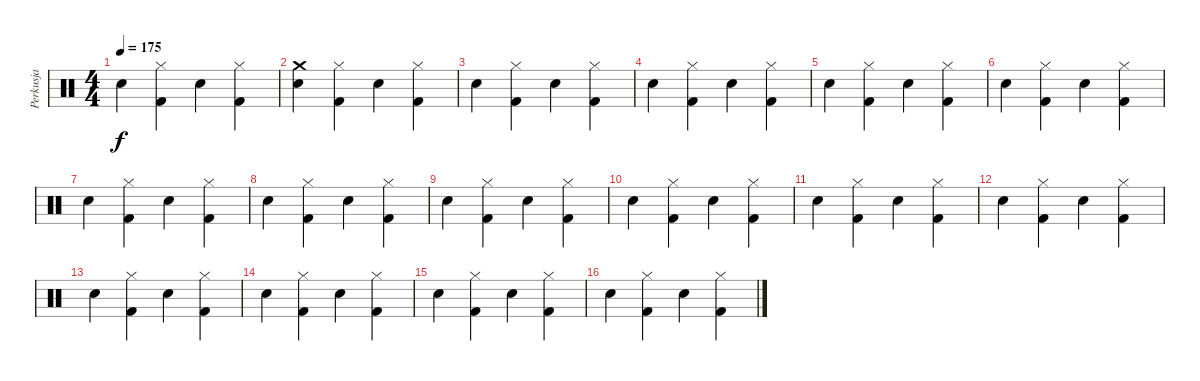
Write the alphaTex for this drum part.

\track ("Perkusja" "Perkusja") {instrument percussion}
\staff {score}
\articulation defaults
\ts (4 4)
\tempo 175
\clef neutral
\ks c "Snare (hit) 2".4{dy f}
("Kick (hit) 2" "Hi-Hat (closed)").4 "Snare (hit) 2".4 ("Kick (hit) 2" "Hi-Hat (closed)").4 |
("Snare (hit) 2" "Crash medium (hit)").4 ("Kick (hit) 2" "Hi-Hat (closed)").4 "Snare (hit) 2".4 ("Kick (hit) 2" "Hi-Hat (closed)").4 |
"Snare (hit) 2".4 ("Kick (hit) 2" "Hi-Hat (closed)").4 "Snare (hit) 2".4 ("Kick (hit) 2" "Hi-Hat (closed)").4 |
"Snare (hit) 2".4 ("Kick (hit) 2" "Hi-Hat (closed)").4 "Snare (hit) 2".4 ("Kick (hit) 2" "Hi-Hat (closed)").4 |
"Snare (hit) 2".4 ("Kick (hit) 2" "Hi-Hat (closed)").4 "Snare (hit) 2".4 ("Kick (hit) 2" "Hi-Hat (closed)").4 |
"Snare (hit) 2".4 ("Kick (hit) 2" "Hi-Hat (closed)").4 "Snare (hit) 2".4 ("Kick (hit) 2" "Hi-Hat (closed)").4 |
"Snare (hit) 2".4 ("Kick (hit) 2" "Hi-Hat (closed)").4 "Snare (hit) 2".4 ("Kick (hit) 2" "Hi-Hat (closed)").4 |
"Snare (hit) 2".4 ("Kick (hit) 2" "Hi-Hat (closed)").4 "Snare (hit) 2".4 ("Kick (hit) 2" "Hi-Hat (closed)").4 |
"Snare (hit) 2".4 ("Kick (hit) 2" "Hi-Hat (closed)").4 "Snare (hit) 2".4 ("Kick (hit) 2" "Hi-Hat (closed)").4 |
"Snare (hit) 2".4 ("Kick (hit) 2" "Hi-Hat (closed)").4 "Snare (hit) 2".4 ("Kick (hit) 2" "Hi-Hat (closed)").4 |
"Snare (hit) 2".4 ("Kick (hit) 2" "Hi-Hat (closed)").4 "Snare (hit) 2".4 ("Kick (hit) 2" "Hi-Hat (closed)").4 |
"Snare (hit) 2".4 ("Kick (hit) 2" "Hi-Hat (closed)").4 "Snare (hit) 2".4 ("Kick (hit) 2" "Hi-Hat (closed)").4 |
"Snare (hit) 2".4 ("Kick (hit) 2" "Hi-Hat (closed)").4 "Snare (hit) 2".4 ("Kick (hit) 2" "Hi-Hat (closed)").4 |
"Snare (hit) 2".4 ("Kick (hit) 2" "Hi-Hat (closed)").4 "Snare (hit) 2".4 ("Kick (hit) 2" "Hi-Hat (closed)").4 |
"Snare (hit) 2".4 ("Kick (hit) 2" "Hi-Hat (closed)").4 "Snare (hit) 2".4 ("Kick (hit) 2" "Hi-Hat (closed)").4 |
"Snare (hit) 2".4 ("Kick (hit) 2" "Hi-Hat (closed)").4 "Snare (hit) 2".4 ("Kick (hit) 2" "Hi-Hat (closed)").4
